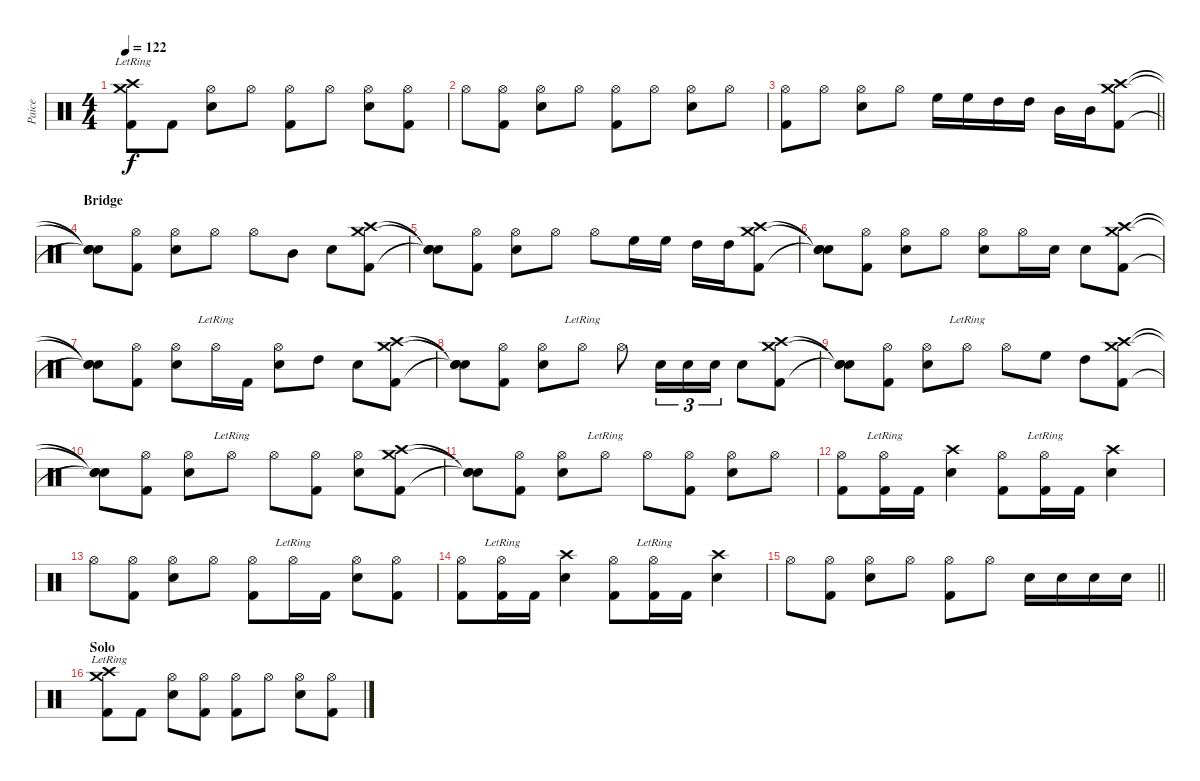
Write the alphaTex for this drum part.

\track ("Paice" "Paice") {instrument percussion}
\staff {score}
\articulation defaults
\ts (4 4)
\tempo 122
\clef neutral
\ks c
("Crash high (hit)"{lr} "Crash medium (hit)"{lr} "Kick (hit) 2").8{dy f} "Kick (hit) 2".8 ("Hi-Hat (open)" "Electric Snare (hit)").8 "Hi-Hat (open)".8 ("Hi-Hat (open)" "Kick (hit) 2").8 "Hi-Hat (open)".8 ("Hi-Hat (open)" "Electric Snare (hit)").8 ("Hi-Hat (open)" "Kick (hit) 2").8 |
"Hi-Hat (open)".8 ("Hi-Hat (open)" "Kick (hit) 2").8 ("Hi-Hat (open)" "Electric Snare (hit)").8 "Hi-Hat (open)".8 ("Hi-Hat (open)" "Kick (hit) 2").8 "Hi-Hat (open)".8 ("Hi-Hat (open)" "Electric Snare (hit)").8 "Hi-Hat (open)".8 |
\barLineRight lightlight
("Hi-Hat (open)" "Kick (hit) 2").8 "Hi-Hat (open)".8 ("Hi-Hat (open)" "Electric Snare (hit)").8 "Hi-Hat (open)".8 "High Floor Tom (hit)".16 "High Floor Tom (hit)".16 "High Tom (hit)".16 "High Tom (hit)".16 "Mid Tom (hit)".16 "Mid Tom (hit)".16 ("Crash high (hit)" "Crash medium (hit)" "Kick (hit) 2").8 |
\section ("" "Bridge")
("Snare (hit)"{t} "Snare (hit)"{t} "Snare (hit)"{t}).8 ("Hi-Hat (open)" "Kick (hit) 2").8 ("Hi-Hat (open)" "Electric Snare (hit)").8 "Hi-Hat (open)".8 "Hi-Hat (open)".8 "Mid Tom (hit)".8 "Electric Snare (hit)".8 ("Crash high (hit)" "Crash medium (hit)" "Kick (hit) 2").8 |
("Snare (hit)"{t} "Snare (hit)"{t} "Snare (hit)"{t}).8 ("Hi-Hat (open)" "Kick (hit) 2").8 ("Hi-Hat (open)" "Electric Snare (hit)").8 "Hi-Hat (open)".8 "Hi-Hat (open)".8 "High Floor Tom (hit)".16 "High Floor Tom (hit)".16 "High Tom (hit)".16 "High Tom (hit)".16 ("Crash high (hit)" "Crash medium (hit)" "Kick (hit) 2").8 |
("Snare (hit)"{t} "Snare (hit)"{t} "Snare (hit)"{t}).8 ("Hi-Hat (open)" "Kick (hit) 2").8 ("Hi-Hat (open)" "Electric Snare (hit)").8 "Hi-Hat (open)".8 ("Hi-Hat (open)" "Electric Snare (hit)").8 "Hi-Hat (open)".16 "Electric Snare (hit)".16 "Electric Snare (hit)".8 ("Crash high (hit)" "Crash medium (hit)" "Kick (hit) 2").8 |
("Snare (hit)"{t} "Snare (hit)"{t} "Snare (hit)"{t}).8 ("Hi-Hat (open)" "Kick (hit) 2").8 ("Hi-Hat (open)" "Electric Snare (hit)").8 "Hi-Hat (open)"{lr}.16 "Kick (hit) 2".16 ("Hi-Hat (open)" "Electric Snare (hit)").8 "High Tom (hit)".8 "Electric Snare (hit)".8 ("Crash high (hit)" "Crash medium (hit)" "Kick (hit) 2").8 |
("Snare (hit)"{t} "Snare (hit)"{t} "Snare (hit)"{t}).8 ("Hi-Hat (open)" "Kick (hit) 2").8 ("Hi-Hat (open)" "Electric Snare (hit)").8 "Hi-Hat (open)"{lr}.8 "Hi-Hat (open)".8 "Electric Snare (hit)".16{tu (3 2)} "Electric Snare (hit)".16{tu (3 2)} "Electric Snare (hit)".16{tu (3 2)} "Electric Snare (hit)".8 ("Crash high (hit)" "Crash medium (hit)" "Kick (hit) 2").8 |
("Snare (hit)"{t} "Snare (hit)"{t} "Snare (hit)"{t}).8 ("Hi-Hat (open)" "Kick (hit) 2").8 ("Hi-Hat (open)" "Electric Snare (hit)").8 "Hi-Hat (open)"{lr}.8 "Hi-Hat (open)".8 "High Floor Tom (hit)".8 "High Tom (hit)".8 ("Crash high (hit)" "Crash medium (hit)" "Kick (hit) 2").8 |
("Snare (hit)"{t} "Snare (hit)"{t} "Snare (hit)"{t}).8 ("Hi-Hat (open)" "Kick (hit) 2").8 ("Hi-Hat (open)" "Electric Snare (hit)").8 "Hi-Hat (open)"{lr}.8 "Hi-Hat (open)".8 ("Hi-Hat (open)" "Kick (hit) 2").8 ("Hi-Hat (open)" "Electric Snare (hit)").8 ("Crash high (hit)" "Crash medium (hit)" "Kick (hit) 2").8 |
("Snare (hit)"{t} "Snare (hit)"{t} "Snare (hit)"{t}).8 ("Hi-Hat (open)" "Kick (hit) 2").8 ("Hi-Hat (open)" "Electric Snare (hit)").8 "Hi-Hat (open)"{lr}.8 "Hi-Hat (open)".8 ("Hi-Hat (open)" "Kick (hit) 2").8 ("Hi-Hat (open)" "Electric Snare (hit)").8 "Hi-Hat (open)".8 |
("Hi-Hat (open)" "Kick (hit) 2").8 ("Hi-Hat (open)"{lr} "Kick (hit) 2").16 "Kick (hit) 2".16 ("Crash high (hit)" "Electric Snare (hit)").4 ("Hi-Hat (open)" "Kick (hit) 2").8 ("Hi-Hat (open)"{lr} "Kick (hit) 2").16 "Kick (hit) 2".16 ("Crash high (hit)" "Electric Snare (hit)").4 |
"Hi-Hat (open)".8 ("Hi-Hat (open)" "Kick (hit) 2").8 ("Hi-Hat (open)" "Electric Snare (hit)").8 "Hi-Hat (open)".8 ("Hi-Hat (open)" "Kick (hit) 2").8 "Hi-Hat (open)"{lr}.16 "Kick (hit) 2".16 ("Hi-Hat (open)" "Electric Snare (hit)").8 ("Hi-Hat (open)" "Kick (hit) 2").8 |
("Hi-Hat (open)" "Kick (hit) 2").8 ("Hi-Hat (open)"{lr} "Kick (hit) 2").16 "Kick (hit) 2".16 ("Crash high (hit)" "Electric Snare (hit)").4 ("Hi-Hat (open)" "Kick (hit) 2").8 ("Hi-Hat (open)"{lr} "Kick (hit) 2").16 "Kick (hit) 2".16 ("Crash high (hit)" "Electric Snare (hit)").4 |
\barLineRight lightlight "Hi-Hat (open)".8
("Hi-Hat (open)" "Kick (hit) 2").8 ("Hi-Hat (open)" "Electric Snare (hit)").8 "Hi-Hat (open)".8 ("Hi-Hat (open)" "Kick (hit) 2").8 "Hi-Hat (open)".8 "Electric Snare (hit)".16 "Electric Snare (hit)".16 "Electric Snare (hit)".16 "Electric Snare (hit)".16 |
\section ("" "Solo")
("Crash high (hit)"{lr} "Crash medium (hit)"{lr} "Kick (hit) 2").8 "Kick (hit) 2".8 ("Hi-Hat (open)" "Electric Snare (hit)").8 ("Hi-Hat (open)" "Kick (hit) 2").8 ("Hi-Hat (open)" "Kick (hit) 2").8 "Hi-Hat (open)".8 ("Hi-Hat (open)" "Electric Snare (hit)").8 ("Hi-Hat (open)" "Kick (hit) 2").8
